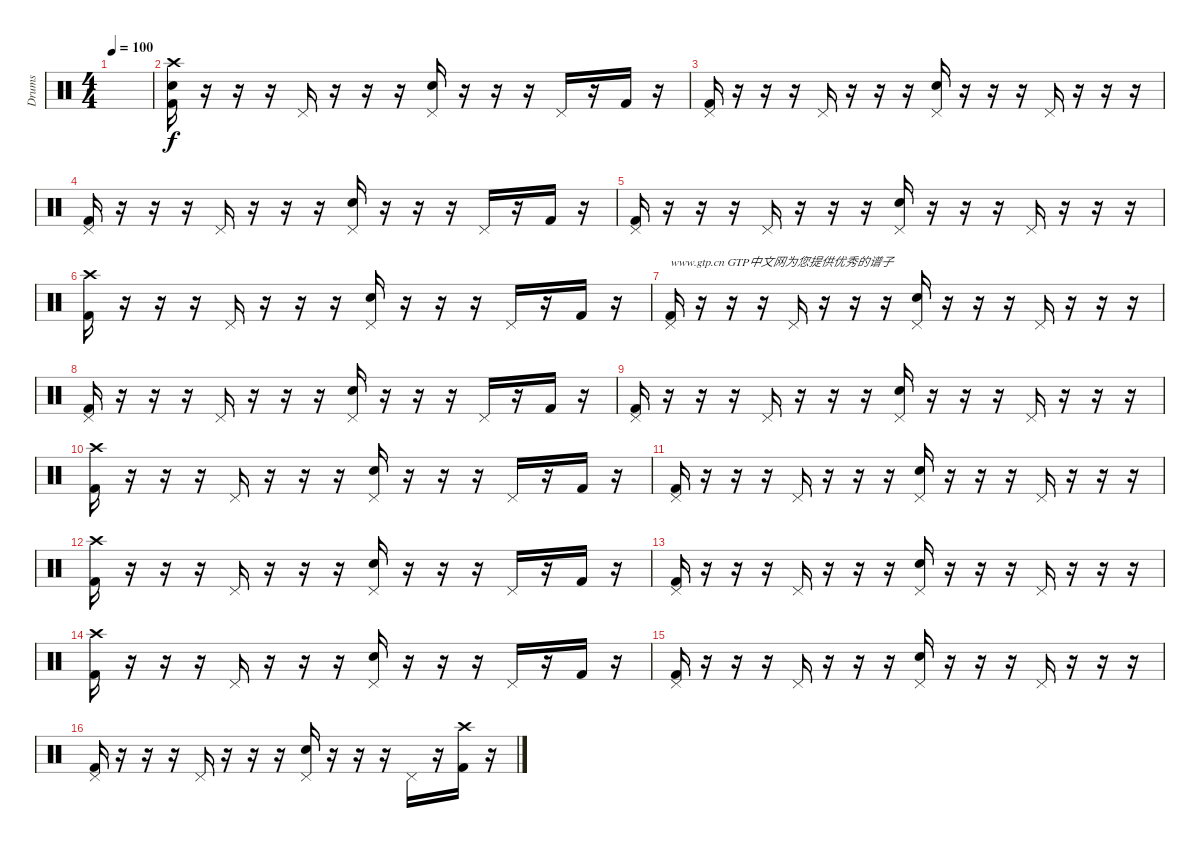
\track ("Drums" "Drums") {instrument percussion}
\staff {score}
\articulation defaults
\ts (4 4)
\tempo 100
\clef neutral
\ks c
|
("Kick (hit) 2" "Electric Snare (hit)" "Crash high (hit)").16 r.16 r.16 r.16 "Pedal Hi-Hat (hit)".16 r.16 r.16 r.16 ("Electric Snare (hit)" "Pedal Hi-Hat (hit)").16 r.16 r.16 r.16 "Pedal Hi-Hat (hit)".16 r.16 "Kick (hit) 2".16 r.16 |
("Kick (hit) 2" "Pedal Hi-Hat (hit)").16 r.16 r.16 r.16 "Pedal Hi-Hat (hit)".16 r.16 r.16 r.16 ("Electric Snare (hit)" "Pedal Hi-Hat (hit)").16 r.16 r.16 r.16 "Pedal Hi-Hat (hit)".16 r.16 r.16 r.16 |
("Kick (hit) 2" "Pedal Hi-Hat (hit)").16 r.16 r.16 r.16 "Pedal Hi-Hat (hit)".16 r.16 r.16 r.16 ("Electric Snare (hit)" "Pedal Hi-Hat (hit)").16 r.16 r.16 r.16 "Pedal Hi-Hat (hit)".16 r.16 "Kick (hit) 2".16 r.16 |
("Kick (hit) 2" "Pedal Hi-Hat (hit)").16 r.16 r.16 r.16 "Pedal Hi-Hat (hit)".16 r.16 r.16 r.16 ("Electric Snare (hit)" "Pedal Hi-Hat (hit)").16 r.16 r.16 r.16 "Pedal Hi-Hat (hit)".16 r.16 r.16 r.16 |
("Kick (hit) 2" "Crash high (hit)").16 r.16 r.16 r.16 "Pedal Hi-Hat (hit)".16 r.16 r.16 r.16 ("Electric Snare (hit)" "Pedal Hi-Hat (hit)").16 r.16 r.16 r.16 "Pedal Hi-Hat (hit)".16 r.16 "Kick (hit) 2".16 r.16 |
("Kick (hit) 2" "Pedal Hi-Hat (hit)").16{txt "www.gtp.cn GTP中文网为您提供优秀的谱子"} r.16 r.16 r.16 "Pedal Hi-Hat (hit)".16 r.16 r.16 r.16 ("Electric Snare (hit)" "Pedal Hi-Hat (hit)").16 r.16 r.16 r.16 "Pedal Hi-Hat (hit)".16 r.16 r.16 r.16 |
("Kick (hit) 2" "Pedal Hi-Hat (hit)").16 r.16 r.16 r.16 "Pedal Hi-Hat (hit)".16 r.16 r.16 r.16 ("Electric Snare (hit)" "Pedal Hi-Hat (hit)").16 r.16 r.16 r.16 "Pedal Hi-Hat (hit)".16 r.16 "Kick (hit) 2".16 r.16 |
("Kick (hit) 2" "Pedal Hi-Hat (hit)").16 r.16 r.16 r.16 "Pedal Hi-Hat (hit)".16 r.16 r.16 r.16 ("Electric Snare (hit)" "Pedal Hi-Hat (hit)").16 r.16 r.16 r.16 "Pedal Hi-Hat (hit)".16 r.16 r.16 r.16 |
("Kick (hit) 2" "Crash high (hit)").16 r.16 r.16 r.16 "Pedal Hi-Hat (hit)".16 r.16 r.16 r.16 ("Electric Snare (hit)" "Pedal Hi-Hat (hit)").16 r.16 r.16 r.16 "Pedal Hi-Hat (hit)".16 r.16 "Kick (hit) 2".16 r.16 |
("Kick (hit) 2" "Pedal Hi-Hat (hit)").16 r.16 r.16 r.16 "Pedal Hi-Hat (hit)".16 r.16 r.16 r.16 ("Electric Snare (hit)" "Pedal Hi-Hat (hit)").16 r.16 r.16 r.16 "Pedal Hi-Hat (hit)".16 r.16 r.16 r.16 |
("Kick (hit) 2" "Crash high (hit)").16 r.16 r.16 r.16 "Pedal Hi-Hat (hit)".16 r.16 r.16 r.16 ("Electric Snare (hit)" "Pedal Hi-Hat (hit)").16 r.16 r.16 r.16 "Pedal Hi-Hat (hit)".16 r.16 "Kick (hit) 2".16 r.16 |
("Kick (hit) 2" "Pedal Hi-Hat (hit)").16 r.16 r.16 r.16 "Pedal Hi-Hat (hit)".16 r.16 r.16 r.16 ("Electric Snare (hit)" "Pedal Hi-Hat (hit)").16 r.16 r.16 r.16 "Pedal Hi-Hat (hit)".16 r.16 r.16 r.16 |
("Kick (hit) 2" "Crash high (hit)").16 r.16 r.16 r.16 "Pedal Hi-Hat (hit)".16 r.16 r.16 r.16 ("Electric Snare (hit)" "Pedal Hi-Hat (hit)").16 r.16 r.16 r.16 "Pedal Hi-Hat (hit)".16 r.16 "Kick (hit) 2".16 r.16 |
("Kick (hit) 2" "Pedal Hi-Hat (hit)").16 r.16 r.16 r.16 "Pedal Hi-Hat (hit)".16 r.16 r.16 r.16 ("Electric Snare (hit)" "Pedal Hi-Hat (hit)").16 r.16 r.16 r.16 "Pedal Hi-Hat (hit)".16 r.16 r.16 r.16 |
("Kick (hit) 2" "Pedal Hi-Hat (hit)").16 r.16 r.16 r.16 "Pedal Hi-Hat (hit)".16 r.16 r.16 r.16 ("Electric Snare (hit)" "Pedal Hi-Hat (hit)").16 r.16 r.16 r.16 "Pedal Hi-Hat (hit)".16 r.16 ("Kick (hit) 2" "Crash high (hit)").16 r.16
